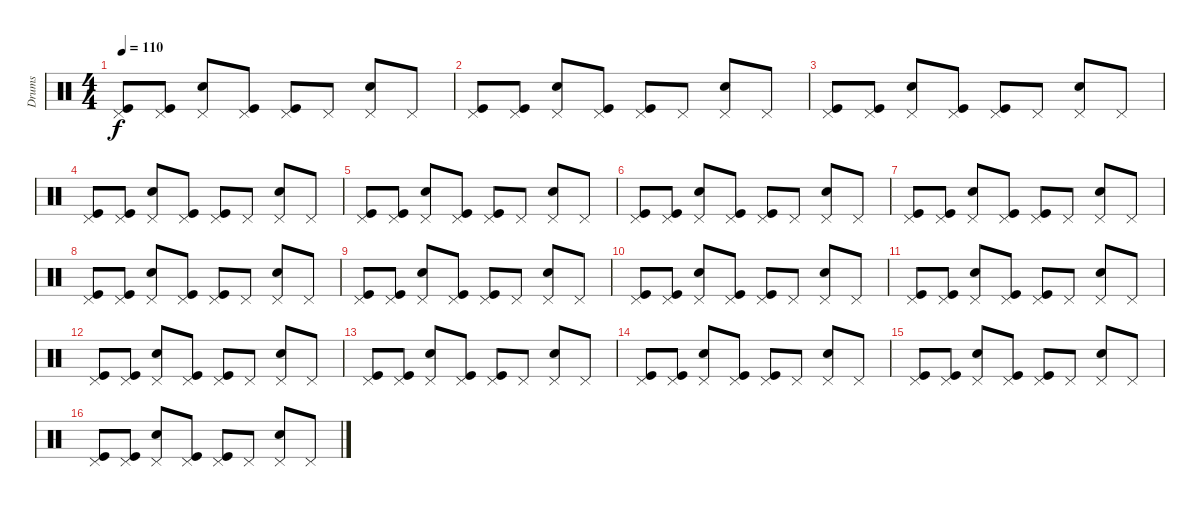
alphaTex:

\track ("Drums" "Drums") {instrument percussion}
\staff {score}
\articulation defaults
\ts (4 4)
\tempo 110
\clef neutral
\ks c
("Pedal Hi-Hat (hit)" "Kick (hit)").8{dy f} ("Pedal Hi-Hat (hit)" "Kick (hit)").8 ("Pedal Hi-Hat (hit)" "Electric Snare (hit)").8 ("Pedal Hi-Hat (hit)" "Kick (hit)").8 ("Pedal Hi-Hat (hit)" "Kick (hit)").8 "Pedal Hi-Hat (hit)".8 ("Pedal Hi-Hat (hit)" "Electric Snare (hit)").8 "Pedal Hi-Hat (hit)".8 |
("Pedal Hi-Hat (hit)" "Kick (hit)").8 ("Pedal Hi-Hat (hit)" "Kick (hit)").8 ("Pedal Hi-Hat (hit)" "Electric Snare (hit)").8 ("Pedal Hi-Hat (hit)" "Kick (hit)").8 ("Pedal Hi-Hat (hit)" "Kick (hit)").8 "Pedal Hi-Hat (hit)".8 ("Pedal Hi-Hat (hit)" "Electric Snare (hit)").8 "Pedal Hi-Hat (hit)".8 |
("Pedal Hi-Hat (hit)" "Kick (hit)").8 ("Pedal Hi-Hat (hit)" "Kick (hit)").8 ("Pedal Hi-Hat (hit)" "Electric Snare (hit)").8 ("Pedal Hi-Hat (hit)" "Kick (hit)").8 ("Pedal Hi-Hat (hit)" "Kick (hit)").8 "Pedal Hi-Hat (hit)".8 ("Pedal Hi-Hat (hit)" "Electric Snare (hit)").8 "Pedal Hi-Hat (hit)".8 |
("Pedal Hi-Hat (hit)" "Kick (hit)").8 ("Pedal Hi-Hat (hit)" "Kick (hit)").8 ("Pedal Hi-Hat (hit)" "Electric Snare (hit)").8 ("Pedal Hi-Hat (hit)" "Kick (hit)").8 ("Pedal Hi-Hat (hit)" "Kick (hit)").8 "Pedal Hi-Hat (hit)".8 ("Pedal Hi-Hat (hit)" "Electric Snare (hit)").8 "Pedal Hi-Hat (hit)".8 |
("Pedal Hi-Hat (hit)" "Kick (hit)").8 ("Pedal Hi-Hat (hit)" "Kick (hit)").8 ("Pedal Hi-Hat (hit)" "Electric Snare (hit)").8 ("Pedal Hi-Hat (hit)" "Kick (hit)").8 ("Pedal Hi-Hat (hit)" "Kick (hit)").8 "Pedal Hi-Hat (hit)".8 ("Pedal Hi-Hat (hit)" "Electric Snare (hit)").8 "Pedal Hi-Hat (hit)".8 |
("Pedal Hi-Hat (hit)" "Kick (hit)").8 ("Pedal Hi-Hat (hit)" "Kick (hit)").8 ("Pedal Hi-Hat (hit)" "Electric Snare (hit)").8 ("Pedal Hi-Hat (hit)" "Kick (hit)").8 ("Pedal Hi-Hat (hit)" "Kick (hit)").8 "Pedal Hi-Hat (hit)".8 ("Pedal Hi-Hat (hit)" "Electric Snare (hit)").8 "Pedal Hi-Hat (hit)".8 |
("Pedal Hi-Hat (hit)" "Kick (hit)").8 ("Pedal Hi-Hat (hit)" "Kick (hit)").8 ("Pedal Hi-Hat (hit)" "Electric Snare (hit)").8 ("Pedal Hi-Hat (hit)" "Kick (hit)").8 ("Pedal Hi-Hat (hit)" "Kick (hit)").8 "Pedal Hi-Hat (hit)".8 ("Pedal Hi-Hat (hit)" "Electric Snare (hit)").8 "Pedal Hi-Hat (hit)".8 |
("Pedal Hi-Hat (hit)" "Kick (hit)").8 ("Pedal Hi-Hat (hit)" "Kick (hit)").8 ("Pedal Hi-Hat (hit)" "Electric Snare (hit)").8 ("Pedal Hi-Hat (hit)" "Kick (hit)").8 ("Pedal Hi-Hat (hit)" "Kick (hit)").8 "Pedal Hi-Hat (hit)".8 ("Pedal Hi-Hat (hit)" "Electric Snare (hit)").8 "Pedal Hi-Hat (hit)".8 |
("Pedal Hi-Hat (hit)" "Kick (hit)").8 ("Pedal Hi-Hat (hit)" "Kick (hit)").8 ("Pedal Hi-Hat (hit)" "Electric Snare (hit)").8 ("Pedal Hi-Hat (hit)" "Kick (hit)").8 ("Pedal Hi-Hat (hit)" "Kick (hit)").8 "Pedal Hi-Hat (hit)".8 ("Pedal Hi-Hat (hit)" "Electric Snare (hit)").8 "Pedal Hi-Hat (hit)".8 |
("Pedal Hi-Hat (hit)" "Kick (hit)").8 ("Pedal Hi-Hat (hit)" "Kick (hit)").8 ("Pedal Hi-Hat (hit)" "Electric Snare (hit)").8 ("Pedal Hi-Hat (hit)" "Kick (hit)").8 ("Pedal Hi-Hat (hit)" "Kick (hit)").8 "Pedal Hi-Hat (hit)".8 ("Pedal Hi-Hat (hit)" "Electric Snare (hit)").8 "Pedal Hi-Hat (hit)".8 |
("Pedal Hi-Hat (hit)" "Kick (hit)").8 ("Pedal Hi-Hat (hit)" "Kick (hit)").8 ("Pedal Hi-Hat (hit)" "Electric Snare (hit)").8 ("Pedal Hi-Hat (hit)" "Kick (hit)").8 ("Pedal Hi-Hat (hit)" "Kick (hit)").8 "Pedal Hi-Hat (hit)".8 ("Pedal Hi-Hat (hit)" "Electric Snare (hit)").8 "Pedal Hi-Hat (hit)".8 |
("Pedal Hi-Hat (hit)" "Kick (hit)").8 ("Pedal Hi-Hat (hit)" "Kick (hit)").8 ("Pedal Hi-Hat (hit)" "Electric Snare (hit)").8 ("Pedal Hi-Hat (hit)" "Kick (hit)").8 ("Pedal Hi-Hat (hit)" "Kick (hit)").8 "Pedal Hi-Hat (hit)".8 ("Pedal Hi-Hat (hit)" "Electric Snare (hit)").8 "Pedal Hi-Hat (hit)".8 |
("Pedal Hi-Hat (hit)" "Kick (hit)").8 ("Pedal Hi-Hat (hit)" "Kick (hit)").8 ("Pedal Hi-Hat (hit)" "Electric Snare (hit)").8 ("Pedal Hi-Hat (hit)" "Kick (hit)").8 ("Pedal Hi-Hat (hit)" "Kick (hit)").8 "Pedal Hi-Hat (hit)".8 ("Pedal Hi-Hat (hit)" "Electric Snare (hit)").8 "Pedal Hi-Hat (hit)".8 |
("Pedal Hi-Hat (hit)" "Kick (hit)").8 ("Pedal Hi-Hat (hit)" "Kick (hit)").8 ("Pedal Hi-Hat (hit)" "Electric Snare (hit)").8 ("Pedal Hi-Hat (hit)" "Kick (hit)").8 ("Pedal Hi-Hat (hit)" "Kick (hit)").8 "Pedal Hi-Hat (hit)".8 ("Pedal Hi-Hat (hit)" "Electric Snare (hit)").8 "Pedal Hi-Hat (hit)".8 |
("Pedal Hi-Hat (hit)" "Kick (hit)").8 ("Pedal Hi-Hat (hit)" "Kick (hit)").8 ("Pedal Hi-Hat (hit)" "Electric Snare (hit)").8 ("Pedal Hi-Hat (hit)" "Kick (hit)").8 ("Pedal Hi-Hat (hit)" "Kick (hit)").8 "Pedal Hi-Hat (hit)".8 ("Pedal Hi-Hat (hit)" "Electric Snare (hit)").8 "Pedal Hi-Hat (hit)".8 |
("Pedal Hi-Hat (hit)" "Kick (hit)").8 ("Pedal Hi-Hat (hit)" "Kick (hit)").8 ("Pedal Hi-Hat (hit)" "Electric Snare (hit)").8 ("Pedal Hi-Hat (hit)" "Kick (hit)").8 ("Pedal Hi-Hat (hit)" "Kick (hit)").8 "Pedal Hi-Hat (hit)".8 ("Pedal Hi-Hat (hit)" "Electric Snare (hit)").8 "Pedal Hi-Hat (hit)".8
